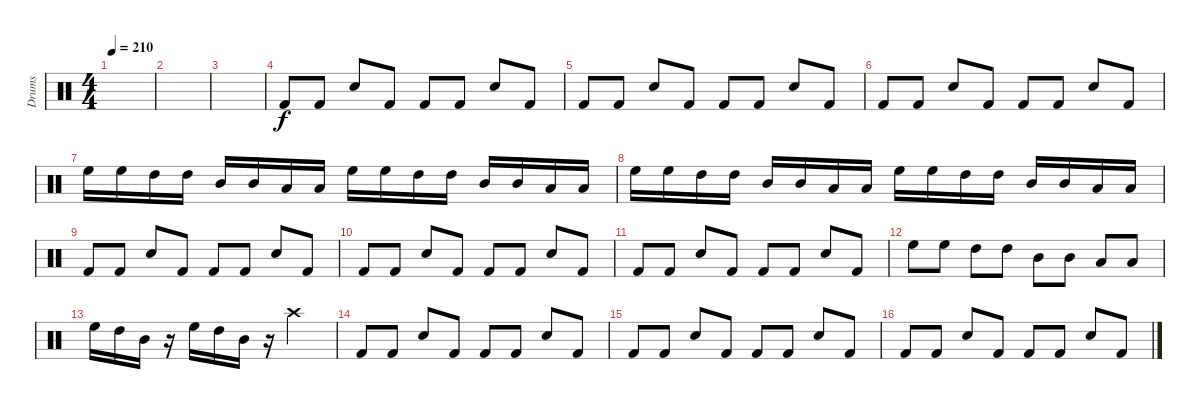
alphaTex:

\track ("Drums" "Drums") {instrument percussion}
\staff {score}
\articulation defaults
\ts (4 4)
\tempo 210
\clef neutral
\ks c
|
|
|
"Kick (hit) 2".8 "Kick (hit) 2".8 "Electric Snare (hit)".8 "Kick (hit) 2".8 "Kick (hit) 2".8 "Kick (hit) 2".8 "Electric Snare (hit)".8 "Kick (hit) 2".8 |
"Kick (hit) 2".8 "Kick (hit) 2".8 "Electric Snare (hit)".8 "Kick (hit) 2".8 "Kick (hit) 2".8 "Kick (hit) 2".8 "Electric Snare (hit)".8 "Kick (hit) 2".8 |
"Kick (hit) 2".8 "Kick (hit) 2".8 "Electric Snare (hit)".8 "Kick (hit) 2".8 "Kick (hit) 2".8 "Kick (hit) 2".8 "Electric Snare (hit)".8 "Kick (hit) 2".8 |
"High Floor Tom (hit)".16 "High Floor Tom (hit)".16 "High Tom (hit)".16 "High Tom (hit)".16 "Mid Tom (hit)".16 "Mid Tom (hit)".16 "Low Tom (hit)".16 "Low Tom (hit)".16 "High Floor Tom (hit)".16 "High Floor Tom (hit)".16 "High Tom (hit)".16 "High Tom (hit)".16 "Mid Tom (hit)".16 "Mid Tom (hit)".16 "Low Tom (hit)".16 "Low Tom (hit)".16 |
"High Floor Tom (hit)".16 "High Floor Tom (hit)".16 "High Tom (hit)".16 "High Tom (hit)".16 "Mid Tom (hit)".16 "Mid Tom (hit)".16 "Low Tom (hit)".16 "Low Tom (hit)".16 "High Floor Tom (hit)".16 "High Floor Tom (hit)".16 "High Tom (hit)".16 "High Tom (hit)".16 "Mid Tom (hit)".16 "Mid Tom (hit)".16 "Low Tom (hit)".16 "Low Tom (hit)".16 |
"Kick (hit) 2".8 "Kick (hit) 2".8 "Electric Snare (hit)".8 "Kick (hit) 2".8 "Kick (hit) 2".8 "Kick (hit) 2".8 "Electric Snare (hit)".8 "Kick (hit) 2".8 |
"Kick (hit) 2".8 "Kick (hit) 2".8 "Electric Snare (hit)".8 "Kick (hit) 2".8 "Kick (hit) 2".8 "Kick (hit) 2".8 "Electric Snare (hit)".8 "Kick (hit) 2".8 |
"Kick (hit) 2".8 "Kick (hit) 2".8 "Electric Snare (hit)".8 "Kick (hit) 2".8 "Kick (hit) 2".8 "Kick (hit) 2".8 "Electric Snare (hit)".8 "Kick (hit) 2".8 |
"High Floor Tom (hit)".8 "High Floor Tom (hit)".8 "High Tom (hit)".8 "High Tom (hit)".8 "Mid Tom (hit)".8 "Mid Tom (hit)".8 "Low Tom (hit)".8 "Low Tom (hit)".8 |
"High Floor Tom (hit)".16 "High Tom (hit)".16 "Mid Tom (hit)".16 r.16 "High Floor Tom (hit)".16 "High Tom (hit)".16 "Mid Tom (hit)".16 r.16 "Crash high (hit)".2 |
"Kick (hit) 2".8 "Kick (hit) 2".8 "Electric Snare (hit)".8 "Kick (hit) 2".8 "Kick (hit) 2".8 "Kick (hit) 2".8 "Electric Snare (hit)".8 "Kick (hit) 2".8 |
"Kick (hit) 2".8 "Kick (hit) 2".8 "Electric Snare (hit)".8 "Kick (hit) 2".8 "Kick (hit) 2".8 "Kick (hit) 2".8 "Electric Snare (hit)".8 "Kick (hit) 2".8 |
"Kick (hit) 2".8 "Kick (hit) 2".8 "Electric Snare (hit)".8 "Kick (hit) 2".8 "Kick (hit) 2".8 "Kick (hit) 2".8 "Electric Snare (hit)".8 "Kick (hit) 2".8
